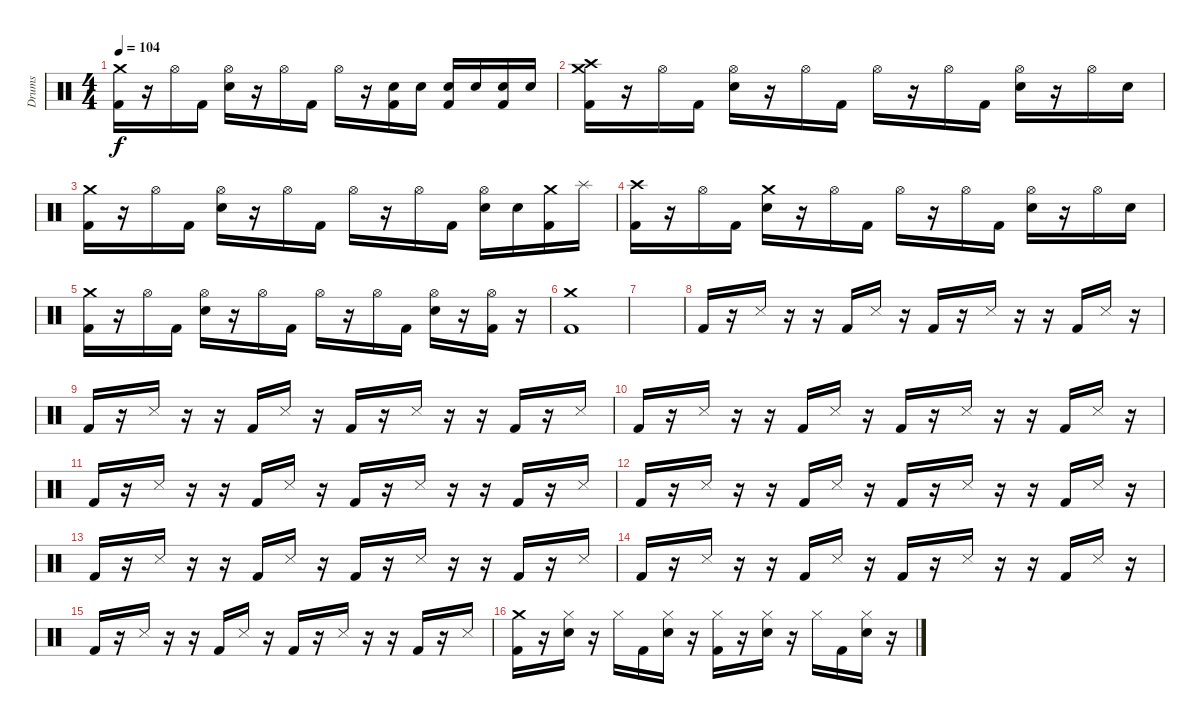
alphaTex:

\track ("Drums" "Drums") {instrument percussion}
\staff {score}
\articulation defaults
\ts (4 4)
\tempo 104
\clef neutral
\ks c
("Crash medium (hit)" "Kick (hit) 2").16{dy f} r.16 "Hi-Hat (open)".16 "Kick (hit) 2".16 ("Hi-Hat (open)" "Snare (hit) 2").16 r.16 "Hi-Hat (open)".16 "Kick (hit) 2".16 "Hi-Hat (open)".16 r.16 ("Snare (hit) 2" "Kick (hit) 2").16 "Snare (hit) 2".16 ("Snare (hit) 2" "Kick (hit) 2").16 "Snare (hit) 2".16 ("Snare (hit) 2" "Kick (hit) 2").16 "Snare (hit) 2".16 |
("Crash high (hit)" "Crash medium (hit)" "Kick (hit) 2").16 r.16 "Hi-Hat (open)".16 "Kick (hit) 2".16 ("Hi-Hat (open)" "Snare (hit) 2").16 r.16 "Hi-Hat (open)".16 "Kick (hit) 2".16 "Hi-Hat (open)".16 r.16 "Hi-Hat (open)".16 "Kick (hit) 2".16 ("Hi-Hat (open)" "Snare (hit) 2").16 r.16 "Hi-Hat (open)".16 "Snare (hit) 2".16 |
("Crash medium (hit)" "Kick (hit) 2").16 r.16 "Hi-Hat (open)".16 "Kick (hit) 2".16 ("Hi-Hat (open)" "Snare (hit) 2").16 r.16 "Hi-Hat (open)".16 "Kick (hit) 2".16 "Hi-Hat (open)".16 r.16 "Hi-Hat (open)".16 "Kick (hit) 2".16 ("Hi-Hat (open)" "Snare (hit) 2").16 "Snare (hit) 2".16 ("Crash medium (hit)" "Kick (hit) 2").16 "Splash (hit)".16 |
("Crash high (hit)" "Kick (hit) 2").16 r.16 "Hi-Hat (open)".16 "Kick (hit) 2".16 ("Crash medium (hit)" "Snare (hit) 2").16 r.16 "Hi-Hat (open)".16 "Kick (hit) 2".16 "Hi-Hat (open)".16 r.16 "Hi-Hat (open)".16 "Kick (hit) 2".16 ("Hi-Hat (open)" "Snare (hit) 2").16 r.16 "Hi-Hat (open)".16 "Snare (hit) 2".16 |
("Crash medium (hit)" "Kick (hit) 2").16 r.16 "Hi-Hat (open)".16 "Kick (hit) 2".16 ("Hi-Hat (open)" "Snare (hit) 2").16 r.16 "Hi-Hat (open)".16 "Kick (hit) 2".16 "Hi-Hat (open)".16 r.16 "Hi-Hat (open)".16 "Kick (hit) 2".16 ("Hi-Hat (open)" "Snare (hit) 2").16 r.16 ("Hi-Hat (open)" "Kick (hit) 2").16 r.16 |
("Crash medium (hit)" "Kick (hit) 2").1 |
|
"Kick (hit) 2".16 r.16 "Snare (side stick) 3".16 r.16 r.16 "Kick (hit) 2".16 "Snare (side stick) 3".16 r.16 "Kick (hit) 2".16 r.16 "Snare (side stick) 3".16 r.16 r.16 "Kick (hit) 2".16 "Snare (side stick) 3".16 r.16 |
"Kick (hit) 2".16 r.16 "Snare (side stick) 3".16 r.16 r.16 "Kick (hit) 2".16 "Snare (side stick) 3".16 r.16 "Kick (hit) 2".16 r.16 "Snare (side stick) 3".16 r.16 r.16 "Kick (hit) 2".16 r.16 "Snare (side stick) 3".16 |
"Kick (hit) 2".16 r.16 "Snare (side stick) 3".16 r.16 r.16 "Kick (hit) 2".16 "Snare (side stick) 3".16 r.16 "Kick (hit) 2".16 r.16 "Snare (side stick) 3".16 r.16 r.16 "Kick (hit) 2".16 "Snare (side stick) 3".16 r.16 |
"Kick (hit) 2".16 r.16 "Snare (side stick) 3".16 r.16 r.16 "Kick (hit) 2".16 "Snare (side stick) 3".16 r.16 "Kick (hit) 2".16 r.16 "Snare (side stick) 3".16 r.16 r.16 "Kick (hit) 2".16 r.16 "Snare (side stick) 3".16 |
"Kick (hit) 2".16 r.16 "Snare (side stick) 3".16 r.16 r.16 "Kick (hit) 2".16 "Snare (side stick) 3".16 r.16 "Kick (hit) 2".16 r.16 "Snare (side stick) 3".16 r.16 r.16 "Kick (hit) 2".16 "Snare (side stick) 3".16 r.16 |
"Kick (hit) 2".16 r.16 "Snare (side stick) 3".16 r.16 r.16 "Kick (hit) 2".16 "Snare (side stick) 3".16 r.16 "Kick (hit) 2".16 r.16 "Snare (side stick) 3".16 r.16 r.16 "Kick (hit) 2".16 r.16 "Snare (side stick) 3".16 |
"Kick (hit) 2".16 r.16 "Snare (side stick) 3".16 r.16 r.16 "Kick (hit) 2".16 "Snare (side stick) 3".16 r.16 "Kick (hit) 2".16 r.16 "Snare (side stick) 3".16 r.16 r.16 "Kick (hit) 2".16 "Snare (side stick) 3".16 r.16 |
"Kick (hit) 2".16 r.16 "Snare (side stick) 3".16 r.16 r.16 "Kick (hit) 2".16 "Snare (side stick) 3".16 r.16 "Kick (hit) 2".16 r.16 "Snare (side stick) 3".16 r.16 r.16 "Kick (hit) 2".16 r.16 "Snare (side stick) 3".16 |
("Crash medium (hit)" "Kick (hit) 2").16 r.16 ("Hi-Hat (closed)" "Snare (hit) 2").16 r.16 "Hi-Hat (closed)".16 "Kick (hit) 2".16 ("Hi-Hat (closed)" "Snare (hit) 2").16 r.16 ("Hi-Hat (closed)" "Kick (hit) 2").16 r.16 ("Hi-Hat (closed)" "Snare (hit) 2").16 r.16 "Hi-Hat (closed)".16 "Kick (hit) 2".16 ("Hi-Hat (closed)" "Snare (hit) 2").16 r.16
